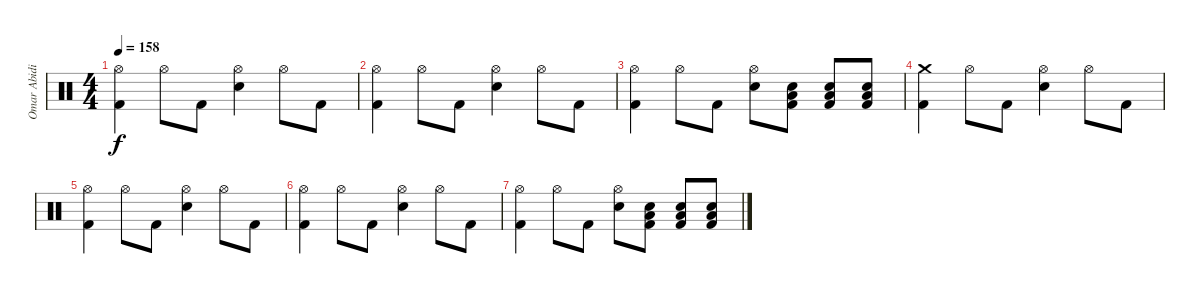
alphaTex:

\track ("Omar Abidi" "Omar Abidi") {instrument percussion}
\staff {score}
\articulation defaults
\ts (4 4)
\tempo 158
\clef neutral
\ks c
("Hi-Hat (open)" "Kick (hit) 2").4{dy f} "Hi-Hat (open)".8 "Kick (hit) 2".8 ("Hi-Hat (open)" "Snare (hit) 2").4 "Hi-Hat (open)".8 "Kick (hit) 2".8 |
("Hi-Hat (open)" "Kick (hit) 2").4 "Hi-Hat (open)".8 "Kick (hit) 2".8 ("Hi-Hat (open)" "Snare (hit) 2").4 "Hi-Hat (open)".8 "Kick (hit) 2".8 |
("Hi-Hat (open)" "Kick (hit) 2").4 "Hi-Hat (open)".8 "Kick (hit) 2".8 ("Hi-Hat (open)" "Snare (hit) 2").8 ("Snare (hit) 2" "Low Tom (hit)" "Kick (hit) 2").8 ("Snare (hit) 2" "Low Tom (hit)" "Kick (hit) 2").8 ("Snare (hit) 2" "Low Tom (hit)" "Kick (hit) 2").8 |
("Crash medium (hit)" "Kick (hit) 2").4 "Hi-Hat (open)".8 "Kick (hit) 2".8 ("Hi-Hat (open)" "Snare (hit) 2").4 "Hi-Hat (open)".8 "Kick (hit) 2".8 |
("Hi-Hat (open)" "Kick (hit) 2").4 "Hi-Hat (open)".8 "Kick (hit) 2".8 ("Hi-Hat (open)" "Snare (hit) 2").4 "Hi-Hat (open)".8 "Kick (hit) 2".8 |
("Hi-Hat (open)" "Kick (hit) 2").4 "Hi-Hat (open)".8 "Kick (hit) 2".8 ("Hi-Hat (open)" "Snare (hit) 2").4 "Hi-Hat (open)".8 "Kick (hit) 2".8 |
("Hi-Hat (open)" "Kick (hit) 2").4 "Hi-Hat (open)".8 "Kick (hit) 2".8 ("Hi-Hat (open)" "Snare (hit) 2").8 ("Snare (hit) 2" "Low Tom (hit)" "Kick (hit) 2").8 ("Snare (hit) 2" "Low Tom (hit)" "Kick (hit) 2").8 ("Snare (hit) 2" "Low Tom (hit)" "Kick (hit) 2").8
